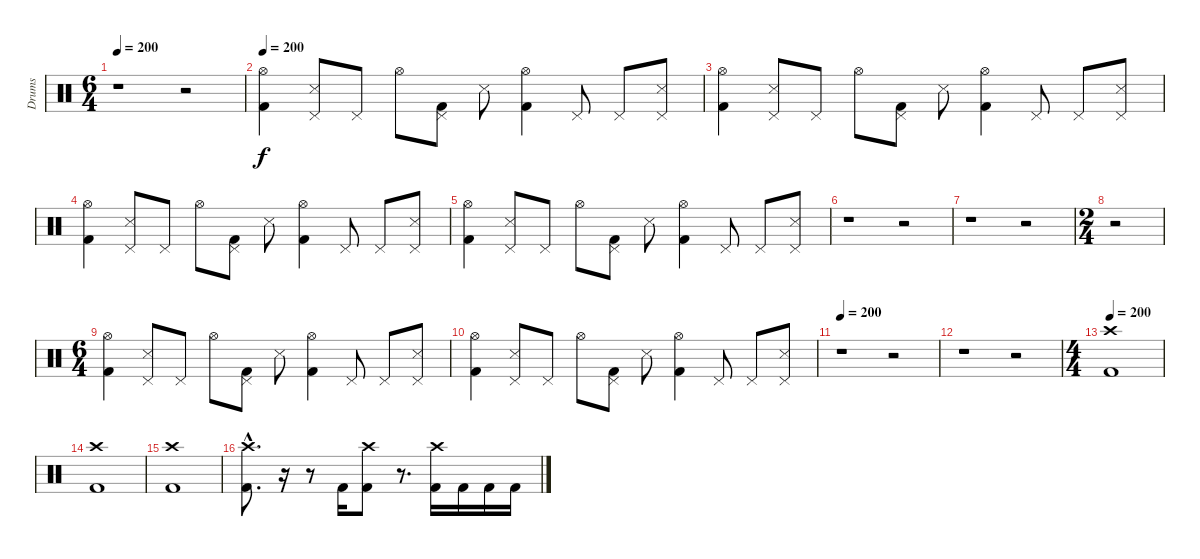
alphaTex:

\track ("Drums" "Drums") {instrument percussion}
\staff {score}
\articulation defaults
\ts (6 4)
\tempo 200
\clef neutral
\ks c
r.1{dy f} r.2 |
\tempo 200
("Hi-Hat (open)" "Kick (hit) 2").4 ("Pedal Hi-Hat (hit)" "Metronome (hit)").8 "Pedal Hi-Hat (hit)".8 "Hi-Hat (open)".8 ("Pedal Hi-Hat (hit)" "Kick (hit) 2").8 "Metronome (hit)".8 ("Hi-Hat (open)" "Kick (hit) 2").4 "Pedal Hi-Hat (hit)".8 "Pedal Hi-Hat (hit)".8 ("Pedal Hi-Hat (hit)" "Metronome (hit)").8 |
("Hi-Hat (open)" "Kick (hit) 2").4 ("Pedal Hi-Hat (hit)" "Metronome (hit)").8 "Pedal Hi-Hat (hit)".8 "Hi-Hat (open)".8 ("Pedal Hi-Hat (hit)" "Kick (hit) 2").8 "Metronome (hit)".8 ("Hi-Hat (open)" "Kick (hit) 2").4 "Pedal Hi-Hat (hit)".8 "Pedal Hi-Hat (hit)".8 ("Pedal Hi-Hat (hit)" "Metronome (hit)").8 |
("Hi-Hat (open)" "Kick (hit) 2").4 ("Pedal Hi-Hat (hit)" "Metronome (hit)").8 "Pedal Hi-Hat (hit)".8 "Hi-Hat (open)".8 ("Pedal Hi-Hat (hit)" "Kick (hit) 2").8 "Metronome (hit)".8 ("Hi-Hat (open)" "Kick (hit) 2").4 "Pedal Hi-Hat (hit)".8 "Pedal Hi-Hat (hit)".8 ("Pedal Hi-Hat (hit)" "Metronome (hit)").8 |
("Hi-Hat (open)" "Kick (hit) 2").4 ("Pedal Hi-Hat (hit)" "Metronome (hit)").8 "Pedal Hi-Hat (hit)".8 "Hi-Hat (open)".8 ("Pedal Hi-Hat (hit)" "Kick (hit) 2").8 "Metronome (hit)".8 ("Hi-Hat (open)" "Kick (hit) 2").4 "Pedal Hi-Hat (hit)".8 "Pedal Hi-Hat (hit)".8 ("Pedal Hi-Hat (hit)" "Metronome (hit)").8 |
r.1 r.2 |
r.1 r.2 |
\ts (2 4)
r.2 |
\ts (6 4)
("Hi-Hat (open)" "Kick (hit) 2").4 ("Pedal Hi-Hat (hit)" "Metronome (hit)").8 "Pedal Hi-Hat (hit)".8 "Hi-Hat (open)".8 ("Pedal Hi-Hat (hit)" "Kick (hit) 2").8 "Metronome (hit)".8 ("Hi-Hat (open)" "Kick (hit) 2").4 "Pedal Hi-Hat (hit)".8 "Pedal Hi-Hat (hit)".8 ("Pedal Hi-Hat (hit)" "Metronome (hit)").8 |
("Hi-Hat (open)" "Kick (hit) 2").4 ("Pedal Hi-Hat (hit)" "Metronome (hit)").8 "Pedal Hi-Hat (hit)".8 "Hi-Hat (open)".8 ("Pedal Hi-Hat (hit)" "Kick (hit) 2").8 "Metronome (hit)".8 ("Hi-Hat (open)" "Kick (hit) 2").4 "Pedal Hi-Hat (hit)".8 "Pedal Hi-Hat (hit)".8 ("Pedal Hi-Hat (hit)" "Metronome (hit)").8 |
\tempo 200
r.1 r.2 |
r.1 r.2 |
\ts (4 4)
\tempo 200
("Crash high (hit)" "Kick (hit) 2").1 |
("Crash high (hit)" "Kick (hit) 2").1 |
("Crash high (hit)" "Kick (hit) 2").1 |
("Crash high (hit)"{hac} "Kick (hit) 2"{hac}).8{d} r.16 r.8 "Kick (hit) 2".16 ("Crash high (hit)" "Kick (hit) 2").8 r.8{d} ("Crash high (hit)" "Kick (hit) 2").16 "Kick (hit) 2".16 "Kick (hit) 2".16 "Kick (hit) 2".16
